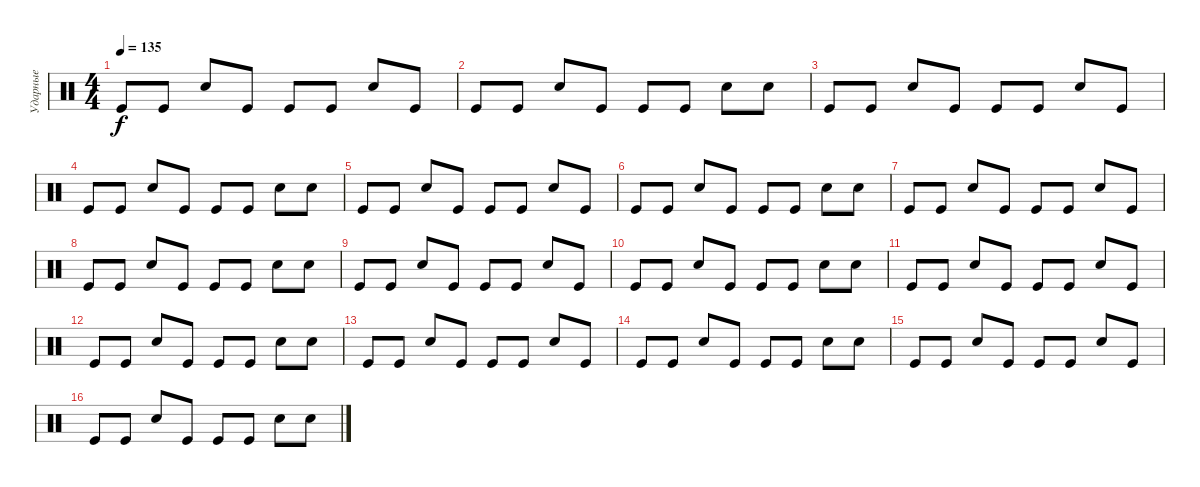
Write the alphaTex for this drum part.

\track ("Ударные" "Ударные") {instrument percussion}
\staff {score}
\articulation defaults
\ts (4 4)
\tempo 135
\clef neutral
\ks c "Kick (hit)".8{dy f} "Kick (hit)".8 "Snare (hit) 2".8 "Kick (hit)".8 "Kick (hit)".8 "Kick (hit)".8 "Snare (hit) 2".8 "Kick (hit)".8
|
"Kick (hit)".8 "Kick (hit)".8 "Snare (hit) 2".8 "Kick (hit)".8 "Kick (hit)".8 "Kick (hit)".8 "Snare (hit) 2".8 "Snare (hit) 2".8 |
"Kick (hit)".8 "Kick (hit)".8 "Snare (hit) 2".8 "Kick (hit)".8 "Kick (hit)".8 "Kick (hit)".8 "Snare (hit) 2".8 "Kick (hit)".8 |
"Kick (hit)".8 "Kick (hit)".8 "Snare (hit) 2".8 "Kick (hit)".8 "Kick (hit)".8 "Kick (hit)".8 "Snare (hit) 2".8 "Snare (hit) 2".8 |
"Kick (hit)".8 "Kick (hit)".8 "Snare (hit) 2".8 "Kick (hit)".8 "Kick (hit)".8 "Kick (hit)".8 "Snare (hit) 2".8 "Kick (hit)".8 |
"Kick (hit)".8 "Kick (hit)".8 "Snare (hit) 2".8 "Kick (hit)".8 "Kick (hit)".8 "Kick (hit)".8 "Snare (hit) 2".8 "Snare (hit) 2".8 |
"Kick (hit)".8 "Kick (hit)".8 "Snare (hit) 2".8 "Kick (hit)".8 "Kick (hit)".8 "Kick (hit)".8 "Snare (hit) 2".8 "Kick (hit)".8 |
"Kick (hit)".8 "Kick (hit)".8 "Snare (hit) 2".8 "Kick (hit)".8 "Kick (hit)".8 "Kick (hit)".8 "Snare (hit) 2".8 "Snare (hit) 2".8 |
"Kick (hit)".8 "Kick (hit)".8 "Snare (hit) 2".8 "Kick (hit)".8 "Kick (hit)".8 "Kick (hit)".8 "Snare (hit) 2".8 "Kick (hit)".8 |
"Kick (hit)".8 "Kick (hit)".8 "Snare (hit) 2".8 "Kick (hit)".8 "Kick (hit)".8 "Kick (hit)".8 "Snare (hit) 2".8 "Snare (hit) 2".8 |
"Kick (hit)".8 "Kick (hit)".8 "Snare (hit) 2".8 "Kick (hit)".8 "Kick (hit)".8 "Kick (hit)".8 "Snare (hit) 2".8 "Kick (hit)".8 |
"Kick (hit)".8 "Kick (hit)".8 "Snare (hit) 2".8 "Kick (hit)".8 "Kick (hit)".8 "Kick (hit)".8 "Snare (hit) 2".8 "Snare (hit) 2".8 |
"Kick (hit)".8{volume 1} "Kick (hit)".8 "Snare (hit) 2".8 "Kick (hit)".8 "Kick (hit)".8 "Kick (hit)".8 "Snare (hit) 2".8 "Kick (hit)".8 |
"Kick (hit)".8 "Kick (hit)".8 "Snare (hit) 2".8 "Kick (hit)".8 "Kick (hit)".8 "Kick (hit)".8 "Snare (hit) 2".8 "Snare (hit) 2".8 |
"Kick (hit)".8 "Kick (hit)".8 "Snare (hit) 2".8 "Kick (hit)".8 "Kick (hit)".8 "Kick (hit)".8 "Snare (hit) 2".8 "Kick (hit)".8 |
"Kick (hit)".8 "Kick (hit)".8 "Snare (hit) 2".8 "Kick (hit)".8 "Kick (hit)".8 "Kick (hit)".8 "Snare (hit) 2".8 "Snare (hit) 2".8
